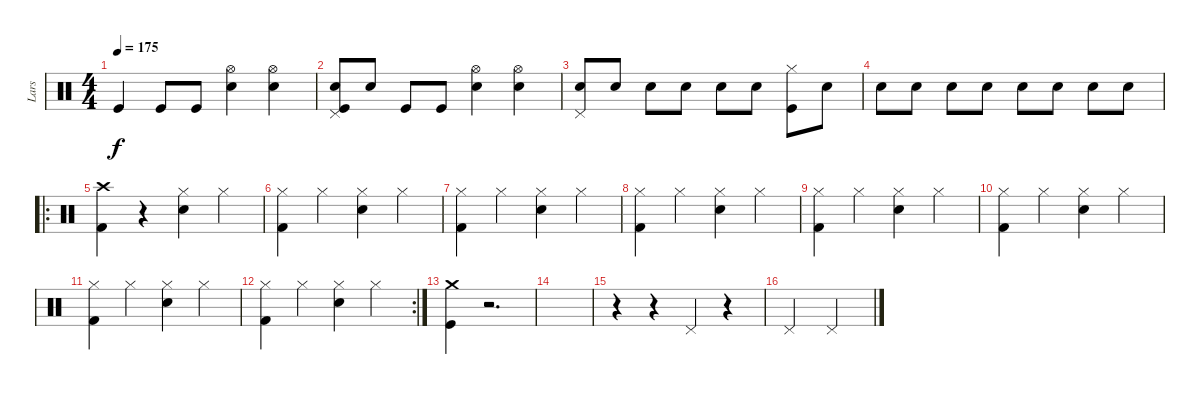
\track ("Lars" "Lars") {instrument percussion}
\staff {score}
\articulation defaults
\ts (4 4)
\tempo 175
\clef neutral
\ks c "Kick (hit)".4{dy f} "Kick (hit)".8 "Kick (hit)".8
("Electric Snare (hit)" "Hi-Hat (open)").4 ("Electric Snare (hit)" "Hi-Hat (open)").4 |
("Kick (hit)" "Electric Snare (hit)" "Pedal Hi-Hat (hit)").8 "Electric Snare (hit)".8 "Kick (hit)".8 "Kick (hit)".8 ("Electric Snare (hit)" "Hi-Hat (open)").4 ("Electric Snare (hit)" "Hi-Hat (open)").4 |
("Electric Snare (hit)" "Pedal Hi-Hat (hit)").8 "Electric Snare (hit)".8 "Electric Snare (hit)".8 "Electric Snare (hit)".8 "Electric Snare (hit)".8 "Electric Snare (hit)".8 ("Kick (hit)" "Hi-Hat (closed)").8 "Electric Snare (hit)".8 |
"Electric Snare (hit)".8 "Electric Snare (hit)".8 "Electric Snare (hit)".8 "Electric Snare (hit)".8 "Electric Snare (hit)".8 "Electric Snare (hit)".8 "Electric Snare (hit)".8 "Electric Snare (hit)".8 |
\ro
("Crash high (hit)" "Kick (hit) 2").4 r.4 ("Hi-Hat (closed)" "Electric Snare (hit)").4 "Hi-Hat (closed)".4 |
("Hi-Hat (closed)" "Kick (hit) 2").4 "Hi-Hat (closed)".4 ("Hi-Hat (closed)" "Electric Snare (hit)").4 "Hi-Hat (closed)".4 |
("Hi-Hat (closed)" "Kick (hit) 2").4 "Hi-Hat (closed)".4 ("Hi-Hat (closed)" "Electric Snare (hit)").4 "Hi-Hat (closed)".4 |
("Hi-Hat (closed)" "Kick (hit) 2").4 "Hi-Hat (closed)".4 ("Hi-Hat (closed)" "Electric Snare (hit)").4 "Hi-Hat (closed)".4 |
("Hi-Hat (closed)" "Kick (hit) 2").4 "Hi-Hat (closed)".4 ("Hi-Hat (closed)" "Electric Snare (hit)").4 "Hi-Hat (closed)".4 |
("Hi-Hat (closed)" "Kick (hit) 2").4 "Hi-Hat (closed)".4 ("Hi-Hat (closed)" "Electric Snare (hit)").4 "Hi-Hat (closed)".4 |
("Hi-Hat (closed)" "Kick (hit) 2").4 "Hi-Hat (closed)".4 ("Hi-Hat (closed)" "Electric Snare (hit)").4 "Hi-Hat (closed)".4 |
\rc 2
("Hi-Hat (closed)" "Kick (hit) 2").4 "Hi-Hat (closed)".4 ("Hi-Hat (closed)" "Electric Snare (hit)").4 "Hi-Hat (closed)".4 |
("Kick (hit)" "Crash medium (hit)").4 r.2{d} |
|
r.4 r.4 "Pedal Hi-Hat (hit)".4 r.4 |
"Pedal Hi-Hat (hit)".2 "Pedal Hi-Hat (hit)".2
